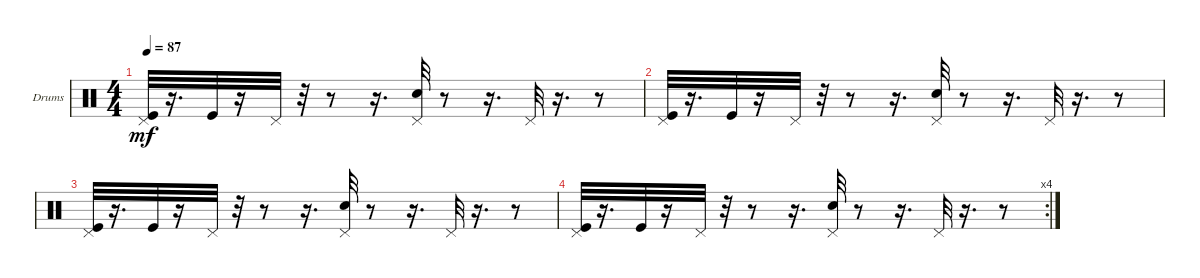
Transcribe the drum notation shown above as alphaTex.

\bracketExtendMode groupsimilarinstruments
\firstSystemTrackNameOrientation horizontal
\otherSystemsTrackNameOrientation horizontal
\track ("weary" "Drums") {solo instrument percussion}
\staff {score}
\articulation defaults
\ts (4 4)
\tempo 87
\clef neutral
\ks c
("Kick (hit)" "Pedal Hi-Hat (hit)").32{dy mf} r.16{d} "Kick (hit)".32 r.16 "Pedal Hi-Hat (hit)".32 r.32 r.8 r.16{d} ("Snare (hit) 2" "Pedal Hi-Hat (hit)").32 r.8 r.16{d} "Pedal Hi-Hat (hit)".32 r.16{d} r.8 |
("Kick (hit)" "Pedal Hi-Hat (hit)").32 r.16{d} "Kick (hit)".32 r.16 "Pedal Hi-Hat (hit)".32 r.32 r.8 r.16{d} ("Snare (hit) 2" "Pedal Hi-Hat (hit)").32 r.8 r.16{d} "Pedal Hi-Hat (hit)".32 r.16{d} r.8 |
("Kick (hit)" "Pedal Hi-Hat (hit)").32 r.16{d} "Kick (hit)".32 r.16 "Pedal Hi-Hat (hit)".32 r.32 r.8 r.16{d} ("Snare (hit) 2" "Pedal Hi-Hat (hit)").32 r.8 r.16{d} "Pedal Hi-Hat (hit)".32 r.16{d} r.8 |
\rc 4
("Kick (hit)" "Pedal Hi-Hat (hit)").32 r.16{d} "Kick (hit)".32 r.16 "Pedal Hi-Hat (hit)".32 r.32 r.8 r.16{d} ("Snare (hit) 2" "Pedal Hi-Hat (hit)").32 r.8 r.16{d} "Pedal Hi-Hat (hit)".32 r.16{d} r.8
